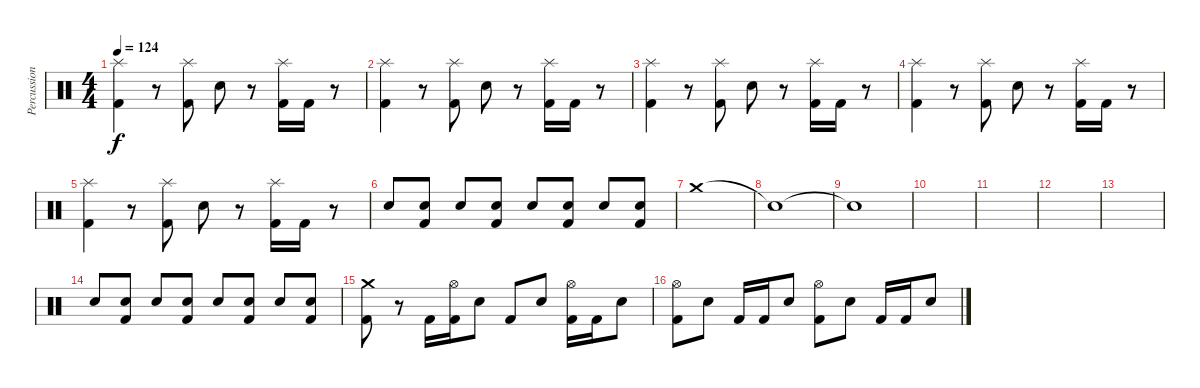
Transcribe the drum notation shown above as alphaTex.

\track ("Percussion" "Percussion") {instrument percussion}
\staff {score}
\articulation defaults
\ts (4 4)
\tempo 124
\clef neutral
\ks c
("Splash (hit)" "Kick (hit) 2").4{dy f} r.8 ("Splash (hit)" "Kick (hit) 2").8 "Electric Snare (hit)".8 r.8 ("Splash (hit)" "Kick (hit) 2").16 "Kick (hit) 2".16 r.8 |
("Splash (hit)" "Kick (hit) 2").4 r.8 ("Splash (hit)" "Kick (hit) 2").8 "Electric Snare (hit)".8 r.8 ("Splash (hit)" "Kick (hit) 2").16 "Kick (hit) 2".16 r.8 |
("Splash (hit)" "Kick (hit) 2").4 r.8 ("Splash (hit)" "Kick (hit) 2").8 "Electric Snare (hit)".8 r.8 ("Splash (hit)" "Kick (hit) 2").16 "Kick (hit) 2".16 r.8 |
("Splash (hit)" "Kick (hit) 2").4 r.8 ("Splash (hit)" "Kick (hit) 2").8 "Electric Snare (hit)".8 r.8 ("Splash (hit)" "Kick (hit) 2").16 "Kick (hit) 2".16 r.8 |
("Splash (hit)" "Kick (hit) 2").4 r.8 ("Splash (hit)" "Kick (hit) 2").8 "Electric Snare (hit)".8 r.8 ("Splash (hit)" "Kick (hit) 2").16 "Kick (hit) 2".16 r.8 |
"Electric Snare (hit)".8 ("Electric Snare (hit)" "Kick (hit) 2").8 "Electric Snare (hit)".8 ("Electric Snare (hit)" "Kick (hit) 2").8 "Electric Snare (hit)".8 ("Electric Snare (hit)" "Kick (hit) 2").8 "Electric Snare (hit)".8 ("Electric Snare (hit)" "Kick (hit) 2").8 |
"Crash medium (hit)".1 |
"Snare (hit)"{t}.1 |
"Snare (hit)"{t}.1 |
|
|
|
|
"Electric Snare (hit)".8 ("Electric Snare (hit)" "Kick (hit) 2").8 "Electric Snare (hit)".8 ("Electric Snare (hit)" "Kick (hit) 2").8 "Electric Snare (hit)".8 ("Electric Snare (hit)" "Kick (hit) 2").8 "Electric Snare (hit)".8 ("Electric Snare (hit)" "Kick (hit) 2").8 |
("Crash medium (hit)" "Kick (hit) 2").8 r.8 "Kick (hit) 2".16 ("Hi-Hat (open)" "Kick (hit) 2").16 "Electric Snare (hit)".8 "Kick (hit) 2".8 "Electric Snare (hit)".8 ("Hi-Hat (open)" "Kick (hit) 2").16 "Kick (hit) 2".16 "Electric Snare (hit)".8 |
("Hi-Hat (open)" "Kick (hit) 2").8 "Electric Snare (hit)".8 "Kick (hit) 2".16 "Kick (hit) 2".16 "Electric Snare (hit)".8 ("Hi-Hat (open)" "Kick (hit) 2").8 "Electric Snare (hit)".8 "Kick (hit) 2".16 "Kick (hit) 2".16 "Electric Snare (hit)".8
